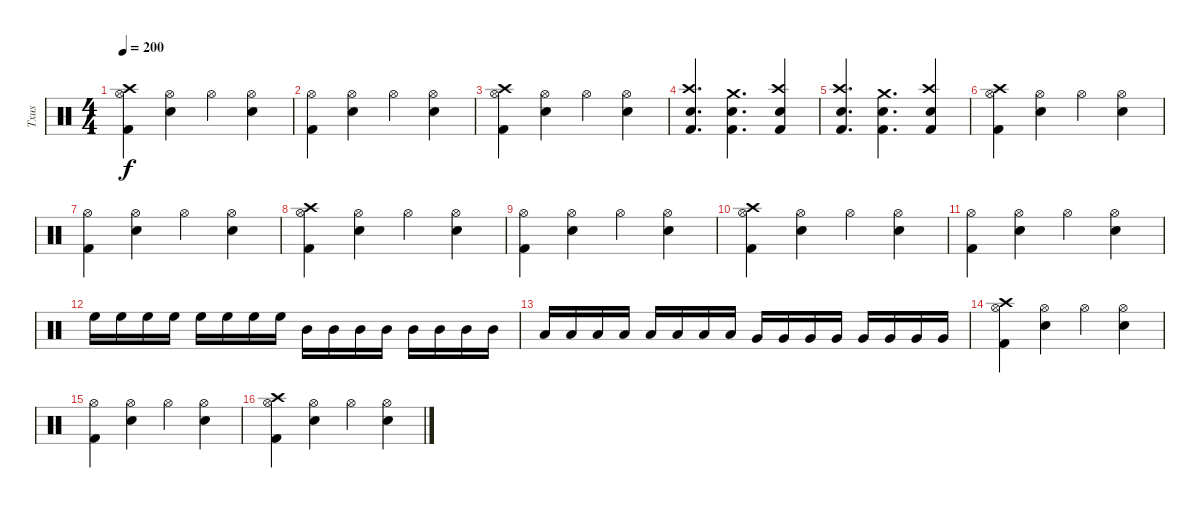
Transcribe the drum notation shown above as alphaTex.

\track ("Txus" "Txus") {instrument percussion}
\staff
\articulation defaults
\ts (4 4)
\tempo 200
\clef neutral
\ks c
("Kick (hit) 2" "Crash high (hit)" "Hi-Hat (open)").4{dy f} ("Electric Snare (hit)" "Hi-Hat (open)").4 "Hi-Hat (open)".4 ("Electric Snare (hit)" "Hi-Hat (open)").4 |
("Kick (hit) 2" "Hi-Hat (open)").4 ("Electric Snare (hit)" "Hi-Hat (open)").4 "Hi-Hat (open)".4 ("Electric Snare (hit)" "Hi-Hat (open)").4 |
("Kick (hit) 2" "Crash high (hit)" "Hi-Hat (open)").4 ("Electric Snare (hit)" "Hi-Hat (open)").4 "Hi-Hat (open)".4 ("Electric Snare (hit)" "Hi-Hat (open)").4 |
("Electric Snare (hit)" "Kick (hit) 2" "Crash high (hit)").4{d} ("Electric Snare (hit)" "Kick (hit) 2" "Crash medium (hit)").4{d} ("Electric Snare (hit)" "Kick (hit) 2" "Crash high (hit)").4 |
("Electric Snare (hit)" "Kick (hit) 2" "Crash high (hit)").4{d} ("Electric Snare (hit)" "Kick (hit) 2" "Crash medium (hit)").4{d} ("Electric Snare (hit)" "Kick (hit) 2" "Crash high (hit)").4 |
("Kick (hit) 2" "Crash high (hit)" "Hi-Hat (open)").4 ("Electric Snare (hit)" "Hi-Hat (open)").4 "Hi-Hat (open)".4 ("Electric Snare (hit)" "Hi-Hat (open)").4 |
("Kick (hit) 2" "Hi-Hat (open)").4 ("Electric Snare (hit)" "Hi-Hat (open)").4 "Hi-Hat (open)".4 ("Electric Snare (hit)" "Hi-Hat (open)").4 |
("Kick (hit) 2" "Crash high (hit)" "Hi-Hat (open)").4 ("Electric Snare (hit)" "Hi-Hat (open)").4 "Hi-Hat (open)".4 ("Electric Snare (hit)" "Hi-Hat (open)").4 |
("Kick (hit) 2" "Hi-Hat (open)").4 ("Electric Snare (hit)" "Hi-Hat (open)").4 "Hi-Hat (open)".4 ("Electric Snare (hit)" "Hi-Hat (open)").4 |
("Kick (hit) 2" "Crash high (hit)" "Hi-Hat (open)").4 ("Electric Snare (hit)" "Hi-Hat (open)").4 "Hi-Hat (open)".4 ("Electric Snare (hit)" "Hi-Hat (open)").4 |
("Kick (hit) 2" "Hi-Hat (open)").4 ("Electric Snare (hit)" "Hi-Hat (open)").4 "Hi-Hat (open)".4 ("Electric Snare (hit)" "Hi-Hat (open)").4 |
"High Floor Tom (hit)".16 "High Floor Tom (hit)".16 "High Floor Tom (hit)".16 "High Floor Tom (hit)".16 "High Floor Tom (hit)".16 "High Floor Tom (hit)".16 "High Floor Tom (hit)".16 "High Floor Tom (hit)".16 "Mid Tom (hit)".16 "Mid Tom (hit)".16 "Mid Tom (hit)".16 "Mid Tom (hit)".16 "Mid Tom (hit)".16 "Mid Tom (hit)".16 "Mid Tom (hit)".16 "Mid Tom (hit)".16 |
"Low Tom (hit)".16 "Low Tom (hit)".16 "Low Tom (hit)".16 "Low Tom (hit)".16 "Low Tom (hit)".16 "Low Tom (hit)".16 "Low Tom (hit)".16 "Low Tom (hit)".16 "Very Low Tom (hit)".16 "Very Low Tom (hit)".16 "Very Low Tom (hit)".16 "Very Low Tom (hit)".16 "Very Low Tom (hit)".16 "Very Low Tom (hit)".16 "Very Low Tom (hit)".16 "Very Low Tom (hit)".16 |
("Kick (hit) 2" "Crash high (hit)" "Hi-Hat (open)").4 ("Electric Snare (hit)" "Hi-Hat (open)").4 "Hi-Hat (open)".4 ("Electric Snare (hit)" "Hi-Hat (open)").4 |
("Kick (hit) 2" "Hi-Hat (open)").4 ("Electric Snare (hit)" "Hi-Hat (open)").4 "Hi-Hat (open)".4 ("Electric Snare (hit)" "Hi-Hat (open)").4 |
("Kick (hit) 2" "Crash high (hit)" "Hi-Hat (open)").4 ("Electric Snare (hit)" "Hi-Hat (open)").4 "Hi-Hat (open)".4 ("Electric Snare (hit)" "Hi-Hat (open)").4
